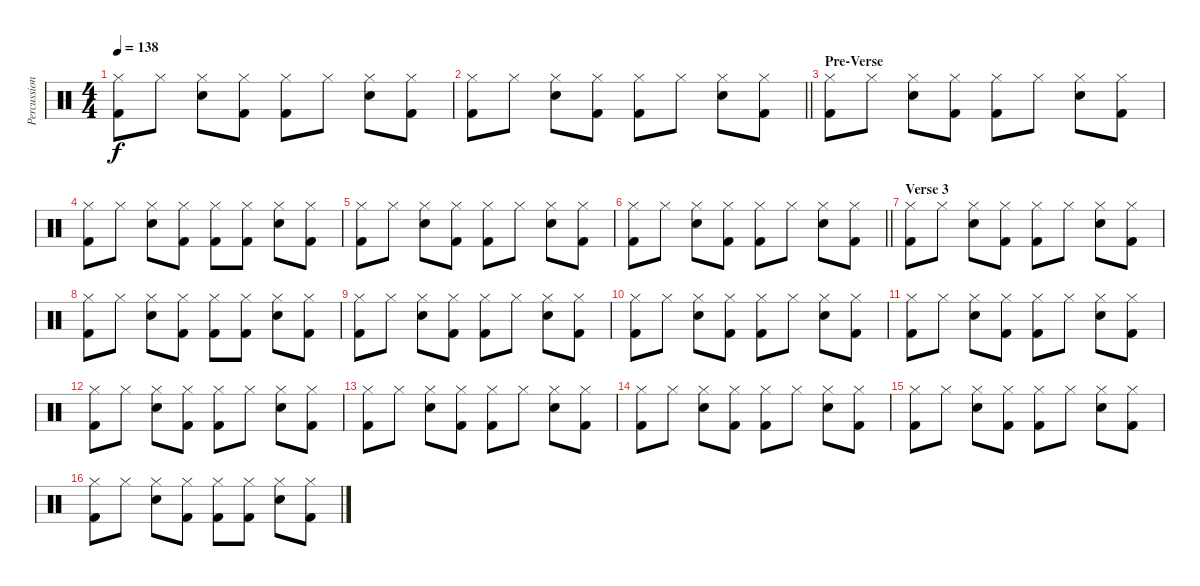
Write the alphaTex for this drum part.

\track ("Percussion" "Percussion") {instrument percussion}
\staff {score}
\articulation defaults
\ts (4 4)
\tempo 138
\clef neutral
\ks c
("Hi-Hat (closed)" "Kick (hit) 2").8{dy f} "Hi-Hat (closed)".8 ("Hi-Hat (closed)" "Electric Snare (hit)").8 ("Hi-Hat (closed)" "Kick (hit) 2").8 ("Hi-Hat (closed)" "Kick (hit) 2").8 "Hi-Hat (closed)".8 ("Hi-Hat (closed)" "Electric Snare (hit)").8 ("Hi-Hat (closed)" "Kick (hit) 2").8 |
\barLineRight lightlight
("Hi-Hat (closed)" "Kick (hit) 2").8 "Hi-Hat (closed)".8 ("Hi-Hat (closed)" "Electric Snare (hit)").8 ("Hi-Hat (closed)" "Kick (hit) 2").8 ("Hi-Hat (closed)" "Kick (hit) 2").8 "Hi-Hat (closed)".8 ("Hi-Hat (closed)" "Electric Snare (hit)").8 ("Hi-Hat (closed)" "Kick (hit) 2").8 |
\section ("" "Pre-Verse")
("Hi-Hat (closed)" "Kick (hit) 2").8 "Hi-Hat (closed)".8 ("Hi-Hat (closed)" "Electric Snare (hit)").8 ("Hi-Hat (closed)" "Kick (hit) 2").8 ("Hi-Hat (closed)" "Kick (hit) 2").8 "Hi-Hat (closed)".8 ("Hi-Hat (closed)" "Electric Snare (hit)").8 ("Hi-Hat (closed)" "Kick (hit) 2").8 |
("Hi-Hat (closed)" "Kick (hit) 2").8 "Hi-Hat (closed)".8 ("Hi-Hat (closed)" "Electric Snare (hit)").8 ("Hi-Hat (closed)" "Kick (hit) 2").8 ("Hi-Hat (closed)" "Kick (hit) 2").8 ("Hi-Hat (closed)" "Kick (hit) 2").8 ("Hi-Hat (closed)" "Electric Snare (hit)").8 ("Hi-Hat (closed)" "Kick (hit) 2").8 |
("Hi-Hat (closed)" "Kick (hit) 2").8 "Hi-Hat (closed)".8 ("Hi-Hat (closed)" "Electric Snare (hit)").8 ("Hi-Hat (closed)" "Kick (hit) 2").8 ("Hi-Hat (closed)" "Kick (hit) 2").8 "Hi-Hat (closed)".8 ("Hi-Hat (closed)" "Electric Snare (hit)").8 ("Hi-Hat (closed)" "Kick (hit) 2").8 |
\barLineRight lightlight
("Hi-Hat (closed)" "Kick (hit) 2").8 "Hi-Hat (closed)".8 ("Hi-Hat (closed)" "Electric Snare (hit)").8 ("Hi-Hat (closed)" "Kick (hit) 2").8 ("Hi-Hat (closed)" "Kick (hit) 2").8 "Hi-Hat (closed)".8 ("Hi-Hat (closed)" "Electric Snare (hit)").8 ("Hi-Hat (closed)" "Kick (hit) 2").8 |
\section ("" "Verse 3")
("Hi-Hat (closed)" "Kick (hit) 2").8 "Hi-Hat (closed)".8 ("Hi-Hat (closed)" "Electric Snare (hit)").8 ("Hi-Hat (closed)" "Kick (hit) 2").8 ("Hi-Hat (closed)" "Kick (hit) 2").8 "Hi-Hat (closed)".8 ("Hi-Hat (closed)" "Electric Snare (hit)").8 ("Hi-Hat (closed)" "Kick (hit) 2").8 |
("Hi-Hat (closed)" "Kick (hit) 2").8 "Hi-Hat (closed)".8 ("Hi-Hat (closed)" "Electric Snare (hit)").8 ("Hi-Hat (closed)" "Kick (hit) 2").8 ("Hi-Hat (closed)" "Kick (hit) 2").8 ("Hi-Hat (closed)" "Kick (hit) 2").8 ("Hi-Hat (closed)" "Electric Snare (hit)").8 ("Hi-Hat (closed)" "Kick (hit) 2").8 |
("Hi-Hat (closed)" "Kick (hit) 2").8 "Hi-Hat (closed)".8 ("Hi-Hat (closed)" "Electric Snare (hit)").8 ("Hi-Hat (closed)" "Kick (hit) 2").8 ("Hi-Hat (closed)" "Kick (hit) 2").8 "Hi-Hat (closed)".8 ("Hi-Hat (closed)" "Electric Snare (hit)").8 ("Hi-Hat (closed)" "Kick (hit) 2").8 |
("Hi-Hat (closed)" "Kick (hit) 2").8 "Hi-Hat (closed)".8 ("Hi-Hat (closed)" "Electric Snare (hit)").8 ("Hi-Hat (closed)" "Kick (hit) 2").8 ("Hi-Hat (closed)" "Kick (hit) 2").8 "Hi-Hat (closed)".8 ("Hi-Hat (closed)" "Electric Snare (hit)").8 ("Hi-Hat (closed)" "Kick (hit) 2").8 |
("Hi-Hat (closed)" "Kick (hit) 2").8 "Hi-Hat (closed)".8 ("Hi-Hat (closed)" "Electric Snare (hit)").8 ("Hi-Hat (closed)" "Kick (hit) 2").8 ("Hi-Hat (closed)" "Kick (hit) 2").8 "Hi-Hat (closed)".8 ("Hi-Hat (closed)" "Electric Snare (hit)").8 ("Hi-Hat (closed)" "Kick (hit) 2").8 |
("Hi-Hat (closed)" "Kick (hit) 2").8 "Hi-Hat (closed)".8 ("Hi-Hat (closed)" "Electric Snare (hit)").8 ("Hi-Hat (closed)" "Kick (hit) 2").8 ("Hi-Hat (closed)" "Kick (hit) 2").8 "Hi-Hat (closed)".8 ("Hi-Hat (closed)" "Electric Snare (hit)").8 ("Hi-Hat (closed)" "Kick (hit) 2").8 |
("Hi-Hat (closed)" "Kick (hit) 2").8 "Hi-Hat (closed)".8 ("Hi-Hat (closed)" "Electric Snare (hit)").8 ("Hi-Hat (closed)" "Kick (hit) 2").8 ("Hi-Hat (closed)" "Kick (hit) 2").8 "Hi-Hat (closed)".8 ("Hi-Hat (closed)" "Electric Snare (hit)").8 ("Hi-Hat (closed)" "Kick (hit) 2").8 |
("Hi-Hat (closed)" "Kick (hit) 2").8 "Hi-Hat (closed)".8 ("Hi-Hat (closed)" "Electric Snare (hit)").8 ("Hi-Hat (closed)" "Kick (hit) 2").8 ("Hi-Hat (closed)" "Kick (hit) 2").8 "Hi-Hat (closed)".8 ("Hi-Hat (closed)" "Electric Snare (hit)").8 ("Hi-Hat (closed)" "Kick (hit) 2").8 |
("Hi-Hat (closed)" "Kick (hit) 2").8 "Hi-Hat (closed)".8 ("Hi-Hat (closed)" "Electric Snare (hit)").8 ("Hi-Hat (closed)" "Kick (hit) 2").8 ("Hi-Hat (closed)" "Kick (hit) 2").8 "Hi-Hat (closed)".8 ("Hi-Hat (closed)" "Electric Snare (hit)").8 ("Hi-Hat (closed)" "Kick (hit) 2").8 |
("Hi-Hat (closed)" "Kick (hit) 2").8 "Hi-Hat (closed)".8 ("Hi-Hat (closed)" "Electric Snare (hit)").8 ("Hi-Hat (closed)" "Kick (hit) 2").8 ("Hi-Hat (closed)" "Kick (hit) 2").8 ("Hi-Hat (closed)" "Kick (hit) 2").8 ("Hi-Hat (closed)" "Electric Snare (hit)").8 ("Hi-Hat (closed)" "Kick (hit) 2").8
